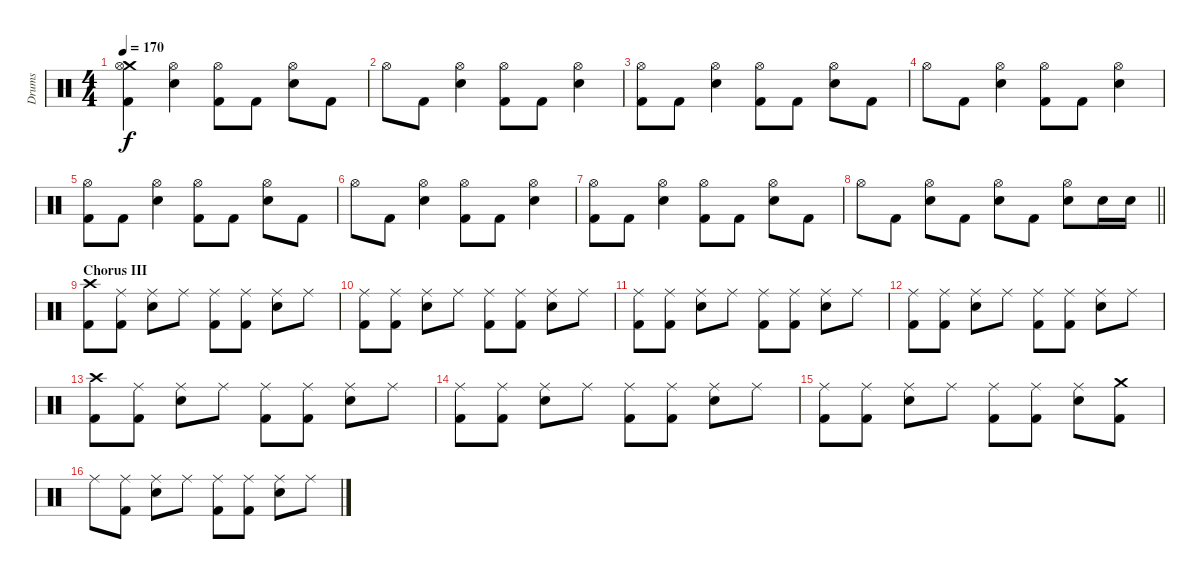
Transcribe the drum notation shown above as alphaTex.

\track ("Drums" "Drums") {instrument percussion}
\staff {score}
\articulation defaults
\ts (4 4)
\tempo 170
\clef neutral
\ks c
("Crash medium (hit)" "Hi-Hat (open)" "Kick (hit) 2").4{dy f} ("Hi-Hat (open)" "Electric Snare (hit)").4 ("Hi-Hat (open)" "Kick (hit) 2").8 "Kick (hit) 2".8 ("Hi-Hat (open)" "Electric Snare (hit)").8 "Kick (hit) 2".8 |
"Hi-Hat (open)".8 "Kick (hit) 2".8 ("Hi-Hat (open)" "Electric Snare (hit)").4 ("Hi-Hat (open)" "Kick (hit) 2").8 "Kick (hit) 2".8 ("Hi-Hat (open)" "Electric Snare (hit)").4 |
("Hi-Hat (open)" "Kick (hit) 2").8 "Kick (hit) 2".8 ("Hi-Hat (open)" "Electric Snare (hit)").4 ("Hi-Hat (open)" "Kick (hit) 2").8 "Kick (hit) 2".8 ("Hi-Hat (open)" "Electric Snare (hit)").8 "Kick (hit) 2".8 |
"Hi-Hat (open)".8 "Kick (hit) 2".8 ("Hi-Hat (open)" "Electric Snare (hit)").4 ("Hi-Hat (open)" "Kick (hit) 2").8 "Kick (hit) 2".8 ("Hi-Hat (open)" "Electric Snare (hit)").4 |
("Hi-Hat (open)" "Kick (hit) 2").8 "Kick (hit) 2".8 ("Hi-Hat (open)" "Electric Snare (hit)").4 ("Hi-Hat (open)" "Kick (hit) 2").8 "Kick (hit) 2".8 ("Hi-Hat (open)" "Electric Snare (hit)").8 "Kick (hit) 2".8 |
"Hi-Hat (open)".8 "Kick (hit) 2".8 ("Hi-Hat (open)" "Electric Snare (hit)").4 ("Hi-Hat (open)" "Kick (hit) 2").8 "Kick (hit) 2".8 ("Hi-Hat (open)" "Electric Snare (hit)").4 |
("Hi-Hat (open)" "Kick (hit) 2").8 "Kick (hit) 2".8 ("Hi-Hat (open)" "Electric Snare (hit)").4 ("Hi-Hat (open)" "Kick (hit) 2").8 "Kick (hit) 2".8 ("Hi-Hat (open)" "Electric Snare (hit)").8 "Kick (hit) 2".8 |
\barLineRight lightlight "Hi-Hat (open)".8 "Kick (hit) 2".8
("Hi-Hat (open)" "Electric Snare (hit)").8 "Kick (hit) 2".8 ("Hi-Hat (open)" "Electric Snare (hit)").8 "Kick (hit) 2".8 ("Hi-Hat (open)" "Electric Snare (hit)").8 "Electric Snare (hit)".16 "Electric Snare (hit)".16 |
\section ("" "Chorus III")
("Crash high (hit)" "Kick (hit) 2").8 ("Ride (middle)" "Kick (hit) 2").8 ("Ride (middle)" "Electric Snare (hit)").8 "Ride (middle)".8 ("Ride (middle)" "Kick (hit) 2").8 ("Ride (middle)" "Kick (hit) 2").8 ("Ride (middle)" "Electric Snare (hit)").8 "Ride (middle)".8 |
("Ride (middle)" "Kick (hit) 2").8 ("Ride (middle)" "Kick (hit) 2").8 ("Ride (middle)" "Electric Snare (hit)").8 "Ride (middle)".8 ("Ride (middle)" "Kick (hit) 2").8 ("Ride (middle)" "Kick (hit) 2").8 ("Ride (middle)" "Electric Snare (hit)").8 "Ride (middle)".8 |
("Ride (middle)" "Kick (hit) 2").8 ("Ride (middle)" "Kick (hit) 2").8 ("Ride (middle)" "Electric Snare (hit)").8 "Ride (middle)".8 ("Ride (middle)" "Kick (hit) 2").8 ("Ride (middle)" "Kick (hit) 2").8 ("Ride (middle)" "Electric Snare (hit)").8 "Ride (middle)".8 |
("Ride (middle)" "Kick (hit) 2").8 ("Ride (middle)" "Kick (hit) 2").8 ("Ride (middle)" "Electric Snare (hit)").8 "Ride (middle)".8 ("Ride (middle)" "Kick (hit) 2").8 ("Ride (middle)" "Kick (hit) 2").8 ("Ride (middle)" "Electric Snare (hit)").8 "Ride (middle)".8 |
("Crash high (hit)" "Kick (hit) 2").8 ("Ride (middle)" "Kick (hit) 2").8 ("Ride (middle)" "Electric Snare (hit)").8 "Ride (middle)".8 ("Ride (middle)" "Kick (hit) 2").8 ("Ride (middle)" "Kick (hit) 2").8 ("Ride (middle)" "Electric Snare (hit)").8 "Ride (middle)".8 |
("Ride (middle)" "Kick (hit) 2").8 ("Ride (middle)" "Kick (hit) 2").8 ("Ride (middle)" "Electric Snare (hit)").8 "Ride (middle)".8 ("Ride (middle)" "Kick (hit) 2").8 ("Ride (middle)" "Kick (hit) 2").8 ("Ride (middle)" "Electric Snare (hit)").8 "Ride (middle)".8 |
("Ride (middle)" "Kick (hit) 2").8 ("Ride (middle)" "Kick (hit) 2").8 ("Ride (middle)" "Electric Snare (hit)").8 "Ride (middle)".8 ("Ride (middle)" "Kick (hit) 2").8 ("Ride (middle)" "Kick (hit) 2").8 ("Ride (middle)" "Electric Snare (hit)").8 ("Crash medium (hit)" "Kick (hit) 2").8 |
"Ride (middle)".8 ("Ride (middle)" "Kick (hit) 2").8 ("Ride (middle)" "Electric Snare (hit)").8 "Ride (middle)".8 ("Ride (middle)" "Kick (hit) 2").8 ("Ride (middle)" "Kick (hit) 2").8 ("Ride (middle)" "Electric Snare (hit)").8 "Ride (middle)".8
